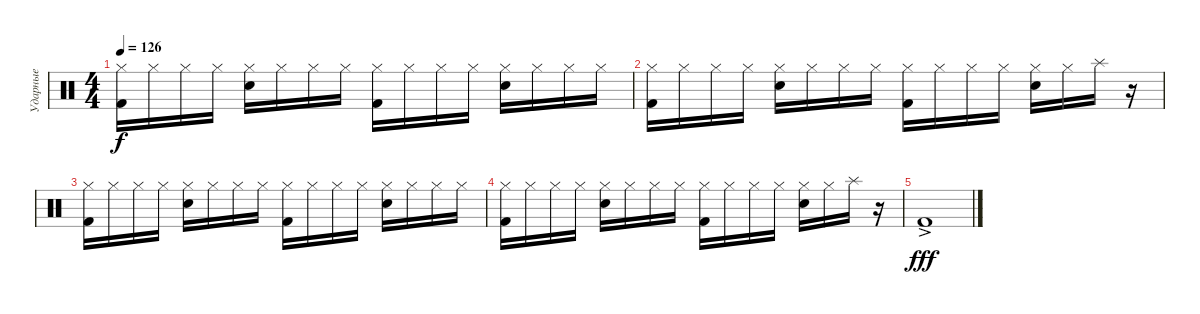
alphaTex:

\track ("Ударные" "Ударные") {instrument percussion}
\staff {score}
\articulation defaults
\ts (4 4)
\tempo 126
\clef neutral
\ks c
("Hi-Hat (closed)" "Kick (hit) 2").16{dy f} "Hi-Hat (closed)".16 "Hi-Hat (closed)".16 "Hi-Hat (closed)".16 ("Hi-Hat (closed)" "Snare (hit) 2").16 "Hi-Hat (closed)".16 "Hi-Hat (closed)".16 "Hi-Hat (closed)".16 ("Hi-Hat (closed)" "Kick (hit) 2").16 "Hi-Hat (closed)".16 "Hi-Hat (closed)".16 "Hi-Hat (closed)".16 ("Hi-Hat (closed)" "Snare (hit) 2").16 "Hi-Hat (closed)".16 "Hi-Hat (closed)".16 "Hi-Hat (closed)".16 |
("Hi-Hat (closed)" "Kick (hit) 2").16 "Hi-Hat (closed)".16 "Hi-Hat (closed)".16 "Hi-Hat (closed)".16 ("Hi-Hat (closed)" "Snare (hit) 2").16 "Hi-Hat (closed)".16 "Hi-Hat (closed)".16 "Hi-Hat (closed)".16 ("Hi-Hat (closed)" "Kick (hit) 2").16 "Hi-Hat (closed)".16 "Hi-Hat (closed)".16 "Hi-Hat (closed)".16 ("Hi-Hat (closed)" "Snare (hit) 2").16 "Hi-Hat (closed)".16 "Splash (hit)".16 r.16 |
("Hi-Hat (closed)" "Kick (hit) 2").16 "Hi-Hat (closed)".16 "Hi-Hat (closed)".16 "Hi-Hat (closed)".16 ("Hi-Hat (closed)" "Snare (hit) 2").16 "Hi-Hat (closed)".16 "Hi-Hat (closed)".16 "Hi-Hat (closed)".16 ("Hi-Hat (closed)" "Kick (hit) 2").16 "Hi-Hat (closed)".16 "Hi-Hat (closed)".16 "Hi-Hat (closed)".16 ("Hi-Hat (closed)" "Snare (hit) 2").16 "Hi-Hat (closed)".16 "Hi-Hat (closed)".16 "Hi-Hat (closed)".16 |
("Hi-Hat (closed)" "Kick (hit) 2").16 "Hi-Hat (closed)".16 "Hi-Hat (closed)".16 "Hi-Hat (closed)".16 ("Hi-Hat (closed)" "Snare (hit) 2").16 "Hi-Hat (closed)".16 "Hi-Hat (closed)".16 "Hi-Hat (closed)".16 ("Hi-Hat (closed)" "Kick (hit) 2").16 "Hi-Hat (closed)".16 "Hi-Hat (closed)".16 "Hi-Hat (closed)".16 ("Hi-Hat (closed)" "Snare (hit) 2").16 "Hi-Hat (closed)".16 "Splash (hit)".16 r.16 |
"Kick (hit) 2"{ac}.1{dy fff}
